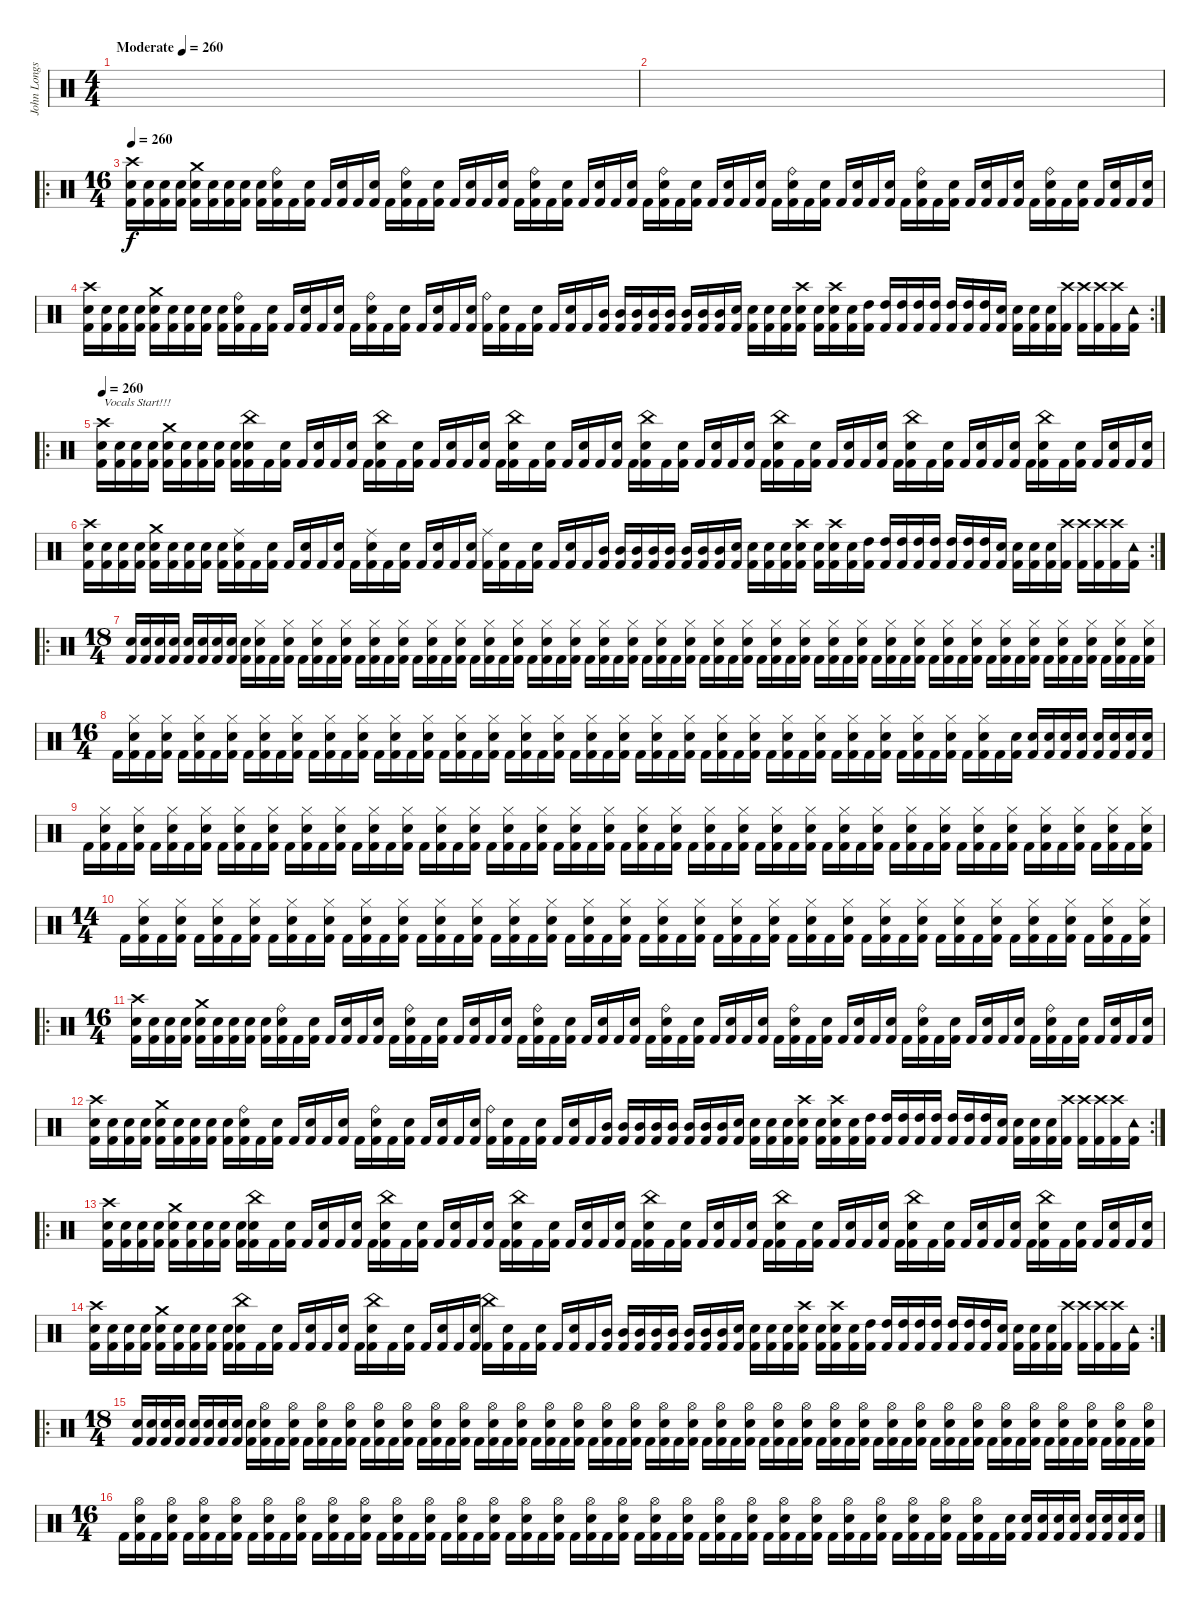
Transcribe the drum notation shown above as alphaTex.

\track ("John Longstreth" "John Longs") {instrument percussion}
\staff {score}
\articulation defaults
\ts (4 4)
\tempo (260 "Moderate")
\tempo 140
\tempo (260 "Moderate")
\clef neutral
\ks c
|
|
\ro
\ts (16 4)
\tempo 260
("Crash high (hit)" "Electric Snare (hit)" "Kick (hit) 2").16 ("Electric Snare (hit)" "Kick (hit) 2").16 ("Electric Snare (hit)" "Kick (hit) 2").16 ("Electric Snare (hit)" "Kick (hit) 2").16 ("Crash medium (hit)" "Electric Snare (hit)" "Kick (hit) 2").16 ("Electric Snare (hit)" "Kick (hit) 2").16 ("Electric Snare (hit)" "Kick (hit) 2").16 ("Electric Snare (hit)" "Kick (hit) 2").16 ("Electric Snare (hit)" "Kick (hit) 2").16 ("Ride (bell)" "Electric Snare (hit)" "Kick (hit) 2").16 "Kick (hit) 2".16 ("Electric Snare (hit)" "Kick (hit) 2").16 "Kick (hit) 2".16 ("Electric Snare (hit)" "Kick (hit) 2").16 "Kick (hit) 2".16 ("Electric Snare (hit)" "Kick (hit) 2").16 "Kick (hit) 2".16 ("Ride (bell)" "Electric Snare (hit)" "Kick (hit) 2").16 "Kick (hit) 2".16 ("Electric Snare (hit)" "Kick (hit) 2").16 "Kick (hit) 2".16 ("Electric Snare (hit)" "Kick (hit) 2").16 "Kick (hit) 2".16 ("Electric Snare (hit)" "Kick (hit) 2").16 "Kick (hit) 2".16 ("Ride (bell)" "Electric Snare (hit)" "Kick (hit) 2").16 "Kick (hit) 2".16 ("Electric Snare (hit)" "Kick (hit) 2").16 "Kick (hit) 2".16 ("Electric Snare (hit)" "Kick (hit) 2").16 "Kick (hit) 2".16 ("Electric Snare (hit)" "Kick (hit) 2").16 "Kick (hit) 2".16 ("Ride (bell)" "Electric Snare (hit)" "Kick (hit) 2").16 "Kick (hit) 2".16 ("Electric Snare (hit)" "Kick (hit) 2").16 "Kick (hit) 2".16 ("Electric Snare (hit)" "Kick (hit) 2").16 "Kick (hit) 2".16 ("Electric Snare (hit)" "Kick (hit) 2").16 "Kick (hit) 2".16 ("Ride (bell)" "Electric Snare (hit)" "Kick (hit) 2").16 "Kick (hit) 2".16 ("Electric Snare (hit)" "Kick (hit) 2").16 "Kick (hit) 2".16 ("Electric Snare (hit)" "Kick (hit) 2").16 "Kick (hit) 2".16 ("Electric Snare (hit)" "Kick (hit) 2").16 "Kick (hit) 2".16 ("Ride (bell)" "Electric Snare (hit)" "Kick (hit) 2").16 "Kick (hit) 2".16 ("Electric Snare (hit)" "Kick (hit) 2").16 "Kick (hit) 2".16 ("Electric Snare (hit)" "Kick (hit) 2").16 "Kick (hit) 2".16 ("Electric Snare (hit)" "Kick (hit) 2").16 "Kick (hit) 2".16 ("Ride (bell)" "Electric Snare (hit)" "Kick (hit) 2").16 "Kick (hit) 2".16 ("Electric Snare (hit)" "Kick (hit) 2").16 "Kick (hit) 2".16 ("Electric Snare (hit)" "Kick (hit) 2").16 "Kick (hit) 2".16 ("Electric Snare (hit)" "Kick (hit) 2").16 |
\rc 2
("Crash high (hit)" "Electric Snare (hit)" "Kick (hit) 2").16 ("Electric Snare (hit)" "Kick (hit) 2").16 ("Electric Snare (hit)" "Kick (hit) 2").16 ("Electric Snare (hit)" "Kick (hit) 2").16 ("Crash medium (hit)" "Electric Snare (hit)" "Kick (hit) 2").16 ("Electric Snare (hit)" "Kick (hit) 2").16 ("Electric Snare (hit)" "Kick (hit) 2").16 ("Electric Snare (hit)" "Kick (hit) 2").16 ("Electric Snare (hit)" "Kick (hit) 2").16 ("Ride (bell)" "Electric Snare (hit)" "Kick (hit) 2").16 "Kick (hit) 2".16 ("Electric Snare (hit)" "Kick (hit) 2").16 "Kick (hit) 2".16 ("Electric Snare (hit)" "Kick (hit) 2").16 "Kick (hit) 2".16 ("Electric Snare (hit)" "Kick (hit) 2").16 "Kick (hit) 2".16 ("Ride (bell)" "Electric Snare (hit)" "Kick (hit) 2").16 "Kick (hit) 2".16 ("Electric Snare (hit)" "Kick (hit) 2").16 "Kick (hit) 2".16 ("Electric Snare (hit)" "Kick (hit) 2").16 "Kick (hit) 2".16 ("Electric Snare (hit)" "Kick (hit) 2").16 ("Ride (bell)" "Kick (hit) 2").16 ("Electric Snare (hit)" "Kick (hit) 2").16 "Kick (hit) 2".16 ("Electric Snare (hit)" "Kick (hit) 2").16 "Kick (hit) 2".16 ("Electric Snare (hit)" "Kick (hit) 2").16 "Kick (hit) 2".16 ("Mid Tom (hit)" "Kick (hit) 2").16 ("Mid Tom (hit)" "Kick (hit) 2").16 ("Mid Tom (hit)" "Kick (hit) 2").16 ("Mid Tom (hit)" "Kick (hit) 2").16 ("Mid Tom (hit)" "Kick (hit) 2").16 ("Mid Tom (hit)" "Kick (hit) 2").16 ("Mid Tom (hit)" "Kick (hit) 2").16 ("Mid Tom (hit)" "Kick (hit) 2").16 ("Electric Snare (hit)" "Kick (hit) 2").16 ("Electric Snare (hit)" "Kick (hit) 2").16 ("Electric Snare (hit)" "Kick (hit) 2").16 ("Electric Snare (hit)" "Kick (hit) 2").16 ("Crash high (hit)" "Electric Snare (hit)" "Kick (hit) 2").16 ("Electric Snare (hit)" "Kick (hit) 2").16 ("Crash high (hit)" "Electric Snare (hit)" "Kick (hit) 2").16 ("Electric Snare (hit)" "Kick (hit) 2").16 ("High Tom (hit)" "Kick (hit) 2").16 ("High Tom (hit)" "Kick (hit) 2").16 ("High Tom (hit)" "Kick (hit) 2").16 ("High Tom (hit)" "Kick (hit) 2").16 ("High Tom (hit)" "Kick (hit) 2").16 ("High Tom (hit)" "Kick (hit) 2").16 ("High Tom (hit)" "Kick (hit) 2").16 ("High Tom (hit)" "Kick (hit) 2").16 ("Electric Snare (hit)" "Kick (hit) 2").16 ("Electric Snare (hit)" "Kick (hit) 2").16 ("Electric Snare (hit)" "Kick (hit) 2").16 ("Electric Snare (hit)" "Kick (hit) 2").16 ("Crash high (hit)" "Kick (hit) 2").16 ("Crash high (hit)" "Kick (hit) 2").16 ("Crash high (hit)" "Kick (hit) 2").16 ("Crash high (hit)" "Kick (hit) 2").16 ("Tambourine (hit)" "Kick (hit) 2").16 |
\ro
\tempo 260
("Crash high (hit)" "Electric Snare (hit)" "Kick (hit) 2").16{txt "Vocals Start!!!"} ("Electric Snare (hit)" "Kick (hit) 2").16 ("Electric Snare (hit)" "Kick (hit) 2").16 ("Electric Snare (hit)" "Kick (hit) 2").16 ("Crash medium (hit)" "Electric Snare (hit)" "Kick (hit) 2").16 ("Electric Snare (hit)" "Kick (hit) 2").16 ("Electric Snare (hit)" "Kick (hit) 2").16 ("Electric Snare (hit)" "Kick (hit) 2").16 ("Electric Snare (hit)" "Kick (hit) 2").16 ("China (hit)" "Electric Snare (hit)" "Kick (hit) 2").16 "Kick (hit) 2".16 ("Electric Snare (hit)" "Kick (hit) 2").16 "Kick (hit) 2".16 ("Electric Snare (hit)" "Kick (hit) 2").16 "Kick (hit) 2".16 ("Electric Snare (hit)" "Kick (hit) 2").16 "Kick (hit) 2".16 ("China (hit)" "Electric Snare (hit)" "Kick (hit) 2").16 "Kick (hit) 2".16 ("Electric Snare (hit)" "Kick (hit) 2").16 "Kick (hit) 2".16 ("Electric Snare (hit)" "Kick (hit) 2").16 "Kick (hit) 2".16 ("Electric Snare (hit)" "Kick (hit) 2").16 "Kick (hit) 2".16 ("China (hit)" "Electric Snare (hit)" "Kick (hit) 2").16 "Kick (hit) 2".16 ("Electric Snare (hit)" "Kick (hit) 2").16 "Kick (hit) 2".16 ("Electric Snare (hit)" "Kick (hit) 2").16 "Kick (hit) 2".16 ("Electric Snare (hit)" "Kick (hit) 2").16 "Kick (hit) 2".16 ("China (hit)" "Electric Snare (hit)" "Kick (hit) 2").16 "Kick (hit) 2".16 ("Electric Snare (hit)" "Kick (hit) 2").16 "Kick (hit) 2".16 ("Electric Snare (hit)" "Kick (hit) 2").16 "Kick (hit) 2".16 ("Electric Snare (hit)" "Kick (hit) 2").16 "Kick (hit) 2".16 ("China (hit)" "Electric Snare (hit)" "Kick (hit) 2").16 "Kick (hit) 2".16 ("Electric Snare (hit)" "Kick (hit) 2").16 "Kick (hit) 2".16 ("Electric Snare (hit)" "Kick (hit) 2").16 "Kick (hit) 2".16 ("Electric Snare (hit)" "Kick (hit) 2").16 "Kick (hit) 2".16 ("China (hit)" "Electric Snare (hit)" "Kick (hit) 2").16 "Kick (hit) 2".16 ("Electric Snare (hit)" "Kick (hit) 2").16 "Kick (hit) 2".16 ("Electric Snare (hit)" "Kick (hit) 2").16 "Kick (hit) 2".16 ("Electric Snare (hit)" "Kick (hit) 2").16 "Kick (hit) 2".16 ("China (hit)" "Electric Snare (hit)" "Kick (hit) 2").16 "Kick (hit) 2".16 ("Electric Snare (hit)" "Kick (hit) 2").16 "Kick (hit) 2".16 ("Electric Snare (hit)" "Kick (hit) 2").16 "Kick (hit) 2".16 ("Electric Snare (hit)" "Kick (hit) 2").16 |
\rc 2
("Crash high (hit)" "Electric Snare (hit)" "Kick (hit) 2").16 ("Electric Snare (hit)" "Kick (hit) 2").16 ("Electric Snare (hit)" "Kick (hit) 2").16 ("Electric Snare (hit)" "Kick (hit) 2").16 ("Crash medium (hit)" "Electric Snare (hit)" "Kick (hit) 2").16 ("Electric Snare (hit)" "Kick (hit) 2").16 ("Electric Snare (hit)" "Kick (hit) 2").16 ("Electric Snare (hit)" "Kick (hit) 2").16 ("Electric Snare (hit)" "Kick (hit) 2").16 ("Ride (middle)" "Electric Snare (hit)" "Kick (hit) 2").16 "Kick (hit) 2".16 ("Electric Snare (hit)" "Kick (hit) 2").16 "Kick (hit) 2".16 ("Electric Snare (hit)" "Kick (hit) 2").16 "Kick (hit) 2".16 ("Electric Snare (hit)" "Kick (hit) 2").16 "Kick (hit) 2".16 ("Ride (middle)" "Electric Snare (hit)" "Kick (hit) 2").16 "Kick (hit) 2".16 ("Electric Snare (hit)" "Kick (hit) 2").16 "Kick (hit) 2".16 ("Electric Snare (hit)" "Kick (hit) 2").16 "Kick (hit) 2".16 ("Electric Snare (hit)" "Kick (hit) 2").16 ("Ride (middle)" "Kick (hit) 2").16 ("Electric Snare (hit)" "Kick (hit) 2").16 "Kick (hit) 2".16 ("Electric Snare (hit)" "Kick (hit) 2").16 "Kick (hit) 2".16 ("Electric Snare (hit)" "Kick (hit) 2").16 "Kick (hit) 2".16 ("Mid Tom (hit)" "Kick (hit) 2").16 ("Mid Tom (hit)" "Kick (hit) 2").16 ("Mid Tom (hit)" "Kick (hit) 2").16 ("Mid Tom (hit)" "Kick (hit) 2").16 ("Mid Tom (hit)" "Kick (hit) 2").16 ("Mid Tom (hit)" "Kick (hit) 2").16 ("Mid Tom (hit)" "Kick (hit) 2").16 ("Mid Tom (hit)" "Kick (hit) 2").16 ("Electric Snare (hit)" "Kick (hit) 2").16 ("Electric Snare (hit)" "Kick (hit) 2").16 ("Electric Snare (hit)" "Kick (hit) 2").16 ("Electric Snare (hit)" "Kick (hit) 2").16 ("Crash high (hit)" "Electric Snare (hit)" "Kick (hit) 2").16 ("Electric Snare (hit)" "Kick (hit) 2").16 ("Crash high (hit)" "Electric Snare (hit)" "Kick (hit) 2").16 ("Electric Snare (hit)" "Kick (hit) 2").16 ("High Tom (hit)" "Kick (hit) 2").16 ("High Tom (hit)" "Kick (hit) 2").16 ("High Tom (hit)" "Kick (hit) 2").16 ("High Tom (hit)" "Kick (hit) 2").16 ("High Tom (hit)" "Kick (hit) 2").16 ("High Tom (hit)" "Kick (hit) 2").16 ("High Tom (hit)" "Kick (hit) 2").16 ("High Tom (hit)" "Kick (hit) 2").16 ("Electric Snare (hit)" "Kick (hit) 2").16 ("Electric Snare (hit)" "Kick (hit) 2").16 ("Electric Snare (hit)" "Kick (hit) 2").16 ("Electric Snare (hit)" "Kick (hit) 2").16 ("Crash high (hit)" "Kick (hit) 2").16 ("Crash high (hit)" "Kick (hit) 2").16 ("Crash high (hit)" "Kick (hit) 2").16 ("Crash high (hit)" "Kick (hit) 2").16 ("Tambourine (hit)" "Kick (hit) 2").16 |
\ro
\ts (18 4)
("Electric Snare (hit)" "Kick (hit) 2").16 ("Electric Snare (hit)" "Kick (hit) 2").16 ("Electric Snare (hit)" "Kick (hit) 2").16 ("Electric Snare (hit)" "Kick (hit) 2").16 ("Electric Snare (hit)" "Kick (hit) 2").16 ("Electric Snare (hit)" "Kick (hit) 2").16 ("Electric Snare (hit)" "Kick (hit) 2").16 ("Electric Snare (hit)" "Kick (hit) 2").16 ("Electric Snare (hit)" "Kick (hit) 2").16 ("Hi-Hat (closed)" "Electric Snare (hit)" "Kick (hit) 2").16 "Kick (hit) 2".16 ("Hi-Hat (closed)" "Electric Snare (hit)" "Kick (hit) 2").16 "Kick (hit) 2".16 ("Hi-Hat (closed)" "Electric Snare (hit)" "Kick (hit) 2").16 "Kick (hit) 2".16 ("Hi-Hat (closed)" "Electric Snare (hit)" "Kick (hit) 2").16 "Kick (hit) 2".16 ("Hi-Hat (closed)" "Electric Snare (hit)" "Kick (hit) 2").16 "Kick (hit) 2".16 ("Hi-Hat (closed)" "Electric Snare (hit)" "Kick (hit) 2").16 "Kick (hit) 2".16 ("Hi-Hat (closed)" "Electric Snare (hit)" "Kick (hit) 2").16 "Kick (hit) 2".16 ("Hi-Hat (closed)" "Electric Snare (hit)" "Kick (hit) 2").16 "Kick (hit) 2".16 ("Hi-Hat (closed)" "Electric Snare (hit)" "Kick (hit) 2").16 "Kick (hit) 2".16 ("Hi-Hat (closed)" "Electric Snare (hit)" "Kick (hit) 2").16 "Kick (hit) 2".16 ("Hi-Hat (closed)" "Electric Snare (hit)" "Kick (hit) 2").16 "Kick (hit) 2".16 ("Hi-Hat (closed)" "Electric Snare (hit)" "Kick (hit) 2").16 "Kick (hit) 2".16 ("Hi-Hat (closed)" "Electric Snare (hit)" "Kick (hit) 2").16 "Kick (hit) 2".16 ("Hi-Hat (closed)" "Electric Snare (hit)" "Kick (hit) 2").16 "Kick (hit) 2".16 ("Hi-Hat (closed)" "Electric Snare (hit)" "Kick (hit) 2").16 "Kick (hit) 2".16 ("Hi-Hat (closed)" "Electric Snare (hit)" "Kick (hit) 2").16 "Kick (hit) 2".16 ("Hi-Hat (closed)" "Electric Snare (hit)" "Kick (hit) 2").16 "Kick (hit) 2".16 ("Hi-Hat (closed)" "Electric Snare (hit)" "Kick (hit) 2").16 "Kick (hit) 2".16 ("Hi-Hat (closed)" "Electric Snare (hit)" "Kick (hit) 2").16 "Kick (hit) 2".16 ("Hi-Hat (closed)" "Electric Snare (hit)" "Kick (hit) 2").16 "Kick (hit) 2".16 ("Hi-Hat (closed)" "Electric Snare (hit)" "Kick (hit) 2").16 "Kick (hit) 2".16 ("Hi-Hat (closed)" "Electric Snare (hit)" "Kick (hit) 2").16 "Kick (hit) 2".16 ("Hi-Hat (closed)" "Electric Snare (hit)" "Kick (hit) 2").16 "Kick (hit) 2".16 ("Hi-Hat (closed)" "Electric Snare (hit)" "Kick (hit) 2").16 "Kick (hit) 2".16 ("Hi-Hat (closed)" "Electric Snare (hit)" "Kick (hit) 2").16 "Kick (hit) 2".16 ("Hi-Hat (closed)" "Electric Snare (hit)" "Kick (hit) 2").16 "Kick (hit) 2".16 ("Hi-Hat (closed)" "Electric Snare (hit)" "Kick (hit) 2").16 "Kick (hit) 2".16 ("Hi-Hat (closed)" "Electric Snare (hit)" "Kick (hit) 2").16 "Kick (hit) 2".16 ("Hi-Hat (closed)" "Electric Snare (hit)" "Kick (hit) 2").16 "Kick (hit) 2".16 ("Hi-Hat (closed)" "Electric Snare (hit)" "Kick (hit) 2").16 "Kick (hit) 2".16 ("Hi-Hat (closed)" "Electric Snare (hit)" "Kick (hit) 2").16 "Kick (hit) 2".16 ("Hi-Hat (closed)" "Electric Snare (hit)" "Kick (hit) 2").16 |
\ts (16 4)
"Kick (hit) 2".16 ("Hi-Hat (closed)" "Electric Snare (hit)" "Kick (hit) 2").16 "Kick (hit) 2".16 ("Hi-Hat (closed)" "Electric Snare (hit)" "Kick (hit) 2").16 "Kick (hit) 2".16 ("Hi-Hat (closed)" "Electric Snare (hit)" "Kick (hit) 2").16 "Kick (hit) 2".16 ("Hi-Hat (closed)" "Electric Snare (hit)" "Kick (hit) 2").16 "Kick (hit) 2".16 ("Hi-Hat (closed)" "Electric Snare (hit)" "Kick (hit) 2").16 "Kick (hit) 2".16 ("Hi-Hat (closed)" "Electric Snare (hit)" "Kick (hit) 2").16 "Kick (hit) 2".16 ("Hi-Hat (closed)" "Electric Snare (hit)" "Kick (hit) 2").16 "Kick (hit) 2".16 ("Hi-Hat (closed)" "Electric Snare (hit)" "Kick (hit) 2").16 "Kick (hit) 2".16 ("Hi-Hat (closed)" "Electric Snare (hit)" "Kick (hit) 2").16 "Kick (hit) 2".16 ("Hi-Hat (closed)" "Electric Snare (hit)" "Kick (hit) 2").16 "Kick (hit) 2".16 ("Hi-Hat (closed)" "Electric Snare (hit)" "Kick (hit) 2").16 "Kick (hit) 2".16 ("Hi-Hat (closed)" "Electric Snare (hit)" "Kick (hit) 2").16 "Kick (hit) 2".16 ("Hi-Hat (closed)" "Electric Snare (hit)" "Kick (hit) 2").16 "Kick (hit) 2".16 ("Hi-Hat (closed)" "Electric Snare (hit)" "Kick (hit) 2").16 "Kick (hit) 2".16 ("Hi-Hat (closed)" "Electric Snare (hit)" "Kick (hit) 2").16 "Kick (hit) 2".16 ("Hi-Hat (closed)" "Electric Snare (hit)" "Kick (hit) 2").16 "Kick (hit) 2".16 ("Hi-Hat (closed)" "Electric Snare (hit)" "Kick (hit) 2").16 "Kick (hit) 2".16 ("Hi-Hat (closed)" "Electric Snare (hit)" "Kick (hit) 2").16 "Kick (hit) 2".16 ("Hi-Hat (closed)" "Electric Snare (hit)" "Kick (hit) 2").16 "Kick (hit) 2".16 ("Hi-Hat (closed)" "Electric Snare (hit)" "Kick (hit) 2").16 "Kick (hit) 2".16 ("Hi-Hat (closed)" "Electric Snare (hit)" "Kick (hit) 2").16 "Kick (hit) 2".16 ("Hi-Hat (closed)" "Electric Snare (hit)" "Kick (hit) 2").16 "Kick (hit) 2".16 ("Hi-Hat (closed)" "Electric Snare (hit)" "Kick (hit) 2").16 "Kick (hit) 2".16 ("Hi-Hat (closed)" "Electric Snare (hit)" "Kick (hit) 2").16 "Kick (hit) 2".16 ("Hi-Hat (closed)" "Electric Snare (hit)" "Kick (hit) 2").16 "Kick (hit) 2".16 ("Hi-Hat (closed)" "Electric Snare (hit)" "Kick (hit) 2").16 "Kick (hit) 2".16 ("Hi-Hat (closed)" "Electric Snare (hit)" "Kick (hit) 2").16 "Kick (hit) 2".16 ("Electric Snare (hit)" "Kick (hit) 2").16 ("Electric Snare (hit)" "Kick (hit) 2").16 ("Electric Snare (hit)" "Kick (hit) 2").16 ("Electric Snare (hit)" "Kick (hit) 2").16 ("Electric Snare (hit)" "Kick (hit) 2").16 ("Electric Snare (hit)" "Kick (hit) 2").16 ("Electric Snare (hit)" "Kick (hit) 2").16 ("Electric Snare (hit)" "Kick (hit) 2").16 ("Electric Snare (hit)" "Kick (hit) 2").16 |
"Kick (hit) 2".16 ("Hi-Hat (closed)" "Electric Snare (hit)" "Kick (hit) 2").16 "Kick (hit) 2".16 ("Hi-Hat (closed)" "Electric Snare (hit)" "Kick (hit) 2").16 "Kick (hit) 2".16 ("Hi-Hat (closed)" "Electric Snare (hit)" "Kick (hit) 2").16 "Kick (hit) 2".16 ("Hi-Hat (closed)" "Electric Snare (hit)" "Kick (hit) 2").16 "Kick (hit) 2".16 ("Hi-Hat (closed)" "Electric Snare (hit)" "Kick (hit) 2").16 "Kick (hit) 2".16 ("Hi-Hat (closed)" "Electric Snare (hit)" "Kick (hit) 2").16 "Kick (hit) 2".16 ("Hi-Hat (closed)" "Electric Snare (hit)" "Kick (hit) 2").16 "Kick (hit) 2".16 ("Hi-Hat (closed)" "Electric Snare (hit)" "Kick (hit) 2").16 "Kick (hit) 2".16 ("Hi-Hat (closed)" "Electric Snare (hit)" "Kick (hit) 2").16 "Kick (hit) 2".16 ("Hi-Hat (closed)" "Electric Snare (hit)" "Kick (hit) 2").16 "Kick (hit) 2".16 ("Hi-Hat (closed)" "Electric Snare (hit)" "Kick (hit) 2").16 "Kick (hit) 2".16 ("Hi-Hat (closed)" "Electric Snare (hit)" "Kick (hit) 2").16 "Kick (hit) 2".16 ("Hi-Hat (closed)" "Electric Snare (hit)" "Kick (hit) 2").16 "Kick (hit) 2".16 ("Hi-Hat (closed)" "Electric Snare (hit)" "Kick (hit) 2").16 "Kick (hit) 2".16 ("Hi-Hat (closed)" "Electric Snare (hit)" "Kick (hit) 2").16 "Kick (hit) 2".16 ("Hi-Hat (closed)" "Electric Snare (hit)" "Kick (hit) 2").16 "Kick (hit) 2".16 ("Hi-Hat (closed)" "Electric Snare (hit)" "Kick (hit) 2").16 "Kick (hit) 2".16 ("Hi-Hat (closed)" "Electric Snare (hit)" "Kick (hit) 2").16 "Kick (hit) 2".16 ("Hi-Hat (closed)" "Electric Snare (hit)" "Kick (hit) 2").16 "Kick (hit) 2".16 ("Hi-Hat (closed)" "Electric Snare (hit)" "Kick (hit) 2").16 "Kick (hit) 2".16 ("Hi-Hat (closed)" "Electric Snare (hit)" "Kick (hit) 2").16 "Kick (hit) 2".16 ("Hi-Hat (closed)" "Electric Snare (hit)" "Kick (hit) 2").16 "Kick (hit) 2".16 ("Hi-Hat (closed)" "Electric Snare (hit)" "Kick (hit) 2").16 "Kick (hit) 2".16 ("Hi-Hat (closed)" "Electric Snare (hit)" "Kick (hit) 2").16 "Kick (hit) 2".16 ("Hi-Hat (closed)" "Electric Snare (hit)" "Kick (hit) 2").16 "Kick (hit) 2".16 ("Hi-Hat (closed)" "Electric Snare (hit)" "Kick (hit) 2").16 "Kick (hit) 2".16 ("Hi-Hat (closed)" "Electric Snare (hit)" "Kick (hit) 2").16 "Kick (hit) 2".16 ("Hi-Hat (closed)" "Electric Snare (hit)" "Kick (hit) 2").16 "Kick (hit) 2".16 ("Hi-Hat (closed)" "Electric Snare (hit)" "Kick (hit) 2").16 "Kick (hit) 2".16 ("Hi-Hat (closed)" "Electric Snare (hit)" "Kick (hit) 2").16 "Kick (hit) 2".16 ("Hi-Hat (closed)" "Electric Snare (hit)" "Kick (hit) 2").16 "Kick (hit) 2".16 ("Hi-Hat (closed)" "Electric Snare (hit)" "Kick (hit) 2").16 |
\ts (14 4)
"Kick (hit) 2".16 ("Hi-Hat (closed)" "Electric Snare (hit)" "Kick (hit) 2").16 "Kick (hit) 2".16 ("Hi-Hat (closed)" "Electric Snare (hit)" "Kick (hit) 2").16 "Kick (hit) 2".16 ("Hi-Hat (closed)" "Electric Snare (hit)" "Kick (hit) 2").16 "Kick (hit) 2".16 ("Hi-Hat (closed)" "Electric Snare (hit)" "Kick (hit) 2").16 "Kick (hit) 2".16 ("Hi-Hat (closed)" "Electric Snare (hit)" "Kick (hit) 2").16 "Kick (hit) 2".16 ("Hi-Hat (closed)" "Electric Snare (hit)" "Kick (hit) 2").16 "Kick (hit) 2".16 ("Hi-Hat (closed)" "Electric Snare (hit)" "Kick (hit) 2").16 "Kick (hit) 2".16 ("Hi-Hat (closed)" "Electric Snare (hit)" "Kick (hit) 2").16 "Kick (hit) 2".16 ("Hi-Hat (closed)" "Electric Snare (hit)" "Kick (hit) 2").16 "Kick (hit) 2".16 ("Hi-Hat (closed)" "Electric Snare (hit)" "Kick (hit) 2").16 "Kick (hit) 2".16 ("Hi-Hat (closed)" "Electric Snare (hit)" "Kick (hit) 2").16 "Kick (hit) 2".16 ("Hi-Hat (closed)" "Electric Snare (hit)" "Kick (hit) 2").16 "Kick (hit) 2".16 ("Hi-Hat (closed)" "Electric Snare (hit)" "Kick (hit) 2").16 "Kick (hit) 2".16 ("Hi-Hat (closed)" "Electric Snare (hit)" "Kick (hit) 2").16 "Kick (hit) 2".16 ("Hi-Hat (closed)" "Electric Snare (hit)" "Kick (hit) 2").16 "Kick (hit) 2".16 ("Hi-Hat (closed)" "Electric Snare (hit)" "Kick (hit) 2").16 "Kick (hit) 2".16 ("Hi-Hat (closed)" "Electric Snare (hit)" "Kick (hit) 2").16 "Kick (hit) 2".16 ("Hi-Hat (closed)" "Electric Snare (hit)" "Kick (hit) 2").16 "Kick (hit) 2".16 ("Hi-Hat (closed)" "Electric Snare (hit)" "Kick (hit) 2").16 "Kick (hit) 2".16 ("Hi-Hat (closed)" "Electric Snare (hit)" "Kick (hit) 2").16 "Kick (hit) 2".16 ("Hi-Hat (closed)" "Electric Snare (hit)" "Kick (hit) 2").16 "Kick (hit) 2".16 ("Hi-Hat (closed)" "Electric Snare (hit)" "Kick (hit) 2").16 "Kick (hit) 2".16 ("Hi-Hat (closed)" "Electric Snare (hit)" "Kick (hit) 2").16 "Kick (hit) 2".16 ("Hi-Hat (closed)" "Electric Snare (hit)" "Kick (hit) 2").16 "Kick (hit) 2".16 ("Hi-Hat (closed)" "Electric Snare (hit)" "Kick (hit) 2").16 "Kick (hit) 2".16 ("Hi-Hat (closed)" "Electric Snare (hit)" "Kick (hit) 2").16 "Kick (hit) 2".16 ("Hi-Hat (closed)" "Electric Snare (hit)" "Kick (hit) 2").16 "Kick (hit) 2".16 ("Hi-Hat (closed)" "Electric Snare (hit)" "Kick (hit) 2").16 |
\ro
\ts (16 4)
("Crash high (hit)" "Electric Snare (hit)" "Kick (hit) 2").16 ("Electric Snare (hit)" "Kick (hit) 2").16 ("Electric Snare (hit)" "Kick (hit) 2").16 ("Electric Snare (hit)" "Kick (hit) 2").16 ("Crash medium (hit)" "Electric Snare (hit)" "Kick (hit) 2").16 ("Electric Snare (hit)" "Kick (hit) 2").16 ("Electric Snare (hit)" "Kick (hit) 2").16 ("Electric Snare (hit)" "Kick (hit) 2").16 ("Electric Snare (hit)" "Kick (hit) 2").16 ("Ride (bell)" "Electric Snare (hit)" "Kick (hit) 2").16 "Kick (hit) 2".16 ("Electric Snare (hit)" "Kick (hit) 2").16 "Kick (hit) 2".16 ("Electric Snare (hit)" "Kick (hit) 2").16 "Kick (hit) 2".16 ("Electric Snare (hit)" "Kick (hit) 2").16 "Kick (hit) 2".16 ("Ride (bell)" "Electric Snare (hit)" "Kick (hit) 2").16 "Kick (hit) 2".16 ("Electric Snare (hit)" "Kick (hit) 2").16 "Kick (hit) 2".16 ("Electric Snare (hit)" "Kick (hit) 2").16 "Kick (hit) 2".16 ("Electric Snare (hit)" "Kick (hit) 2").16 "Kick (hit) 2".16 ("Ride (bell)" "Electric Snare (hit)" "Kick (hit) 2").16 "Kick (hit) 2".16 ("Electric Snare (hit)" "Kick (hit) 2").16 "Kick (hit) 2".16 ("Electric Snare (hit)" "Kick (hit) 2").16 "Kick (hit) 2".16 ("Electric Snare (hit)" "Kick (hit) 2").16 "Kick (hit) 2".16 ("Ride (bell)" "Electric Snare (hit)" "Kick (hit) 2").16 "Kick (hit) 2".16 ("Electric Snare (hit)" "Kick (hit) 2").16 "Kick (hit) 2".16 ("Electric Snare (hit)" "Kick (hit) 2").16 "Kick (hit) 2".16 ("Electric Snare (hit)" "Kick (hit) 2").16 "Kick (hit) 2".16 ("Ride (bell)" "Electric Snare (hit)" "Kick (hit) 2").16 "Kick (hit) 2".16 ("Electric Snare (hit)" "Kick (hit) 2").16 "Kick (hit) 2".16 ("Electric Snare (hit)" "Kick (hit) 2").16 "Kick (hit) 2".16 ("Electric Snare (hit)" "Kick (hit) 2").16 "Kick (hit) 2".16 ("Ride (bell)" "Electric Snare (hit)" "Kick (hit) 2").16 "Kick (hit) 2".16 ("Electric Snare (hit)" "Kick (hit) 2").16 "Kick (hit) 2".16 ("Electric Snare (hit)" "Kick (hit) 2").16 "Kick (hit) 2".16 ("Electric Snare (hit)" "Kick (hit) 2").16 "Kick (hit) 2".16 ("Ride (bell)" "Electric Snare (hit)" "Kick (hit) 2").16 "Kick (hit) 2".16 ("Electric Snare (hit)" "Kick (hit) 2").16 "Kick (hit) 2".16 ("Electric Snare (hit)" "Kick (hit) 2").16 "Kick (hit) 2".16 ("Electric Snare (hit)" "Kick (hit) 2").16 |
\rc 2
("Crash high (hit)" "Electric Snare (hit)" "Kick (hit) 2").16 ("Electric Snare (hit)" "Kick (hit) 2").16 ("Electric Snare (hit)" "Kick (hit) 2").16 ("Electric Snare (hit)" "Kick (hit) 2").16 ("Crash medium (hit)" "Electric Snare (hit)" "Kick (hit) 2").16 ("Electric Snare (hit)" "Kick (hit) 2").16 ("Electric Snare (hit)" "Kick (hit) 2").16 ("Electric Snare (hit)" "Kick (hit) 2").16 ("Electric Snare (hit)" "Kick (hit) 2").16 ("Ride (bell)" "Electric Snare (hit)" "Kick (hit) 2").16 "Kick (hit) 2".16 ("Electric Snare (hit)" "Kick (hit) 2").16 "Kick (hit) 2".16 ("Electric Snare (hit)" "Kick (hit) 2").16 "Kick (hit) 2".16 ("Electric Snare (hit)" "Kick (hit) 2").16 "Kick (hit) 2".16 ("Ride (bell)" "Electric Snare (hit)" "Kick (hit) 2").16 "Kick (hit) 2".16 ("Electric Snare (hit)" "Kick (hit) 2").16 "Kick (hit) 2".16 ("Electric Snare (hit)" "Kick (hit) 2").16 "Kick (hit) 2".16 ("Electric Snare (hit)" "Kick (hit) 2").16 ("Ride (bell)" "Kick (hit) 2").16 ("Electric Snare (hit)" "Kick (hit) 2").16 "Kick (hit) 2".16 ("Electric Snare (hit)" "Kick (hit) 2").16 "Kick (hit) 2".16 ("Electric Snare (hit)" "Kick (hit) 2").16 "Kick (hit) 2".16 ("Mid Tom (hit)" "Kick (hit) 2").16 ("Mid Tom (hit)" "Kick (hit) 2").16 ("Mid Tom (hit)" "Kick (hit) 2").16 ("Mid Tom (hit)" "Kick (hit) 2").16 ("Mid Tom (hit)" "Kick (hit) 2").16 ("Mid Tom (hit)" "Kick (hit) 2").16 ("Mid Tom (hit)" "Kick (hit) 2").16 ("Mid Tom (hit)" "Kick (hit) 2").16 ("Electric Snare (hit)" "Kick (hit) 2").16 ("Electric Snare (hit)" "Kick (hit) 2").16 ("Electric Snare (hit)" "Kick (hit) 2").16 ("Electric Snare (hit)" "Kick (hit) 2").16 ("Crash high (hit)" "Electric Snare (hit)" "Kick (hit) 2").16 ("Electric Snare (hit)" "Kick (hit) 2").16 ("Crash high (hit)" "Electric Snare (hit)" "Kick (hit) 2").16 ("Electric Snare (hit)" "Kick (hit) 2").16 ("High Tom (hit)" "Kick (hit) 2").16 ("High Tom (hit)" "Kick (hit) 2").16 ("High Tom (hit)" "Kick (hit) 2").16 ("High Tom (hit)" "Kick (hit) 2").16 ("High Tom (hit)" "Kick (hit) 2").16 ("High Tom (hit)" "Kick (hit) 2").16 ("High Tom (hit)" "Kick (hit) 2").16 ("High Tom (hit)" "Kick (hit) 2").16 ("Electric Snare (hit)" "Kick (hit) 2").16 ("Electric Snare (hit)" "Kick (hit) 2").16 ("Electric Snare (hit)" "Kick (hit) 2").16 ("Electric Snare (hit)" "Kick (hit) 2").16 ("Crash high (hit)" "Kick (hit) 2").16 ("Crash high (hit)" "Kick (hit) 2").16 ("Crash high (hit)" "Kick (hit) 2").16 ("Crash high (hit)" "Kick (hit) 2").16 ("Tambourine (hit)" "Kick (hit) 2").16 |
\ro
("Crash high (hit)" "Electric Snare (hit)" "Kick (hit) 2").16 ("Electric Snare (hit)" "Kick (hit) 2").16 ("Electric Snare (hit)" "Kick (hit) 2").16 ("Electric Snare (hit)" "Kick (hit) 2").16 ("Crash medium (hit)" "Electric Snare (hit)" "Kick (hit) 2").16 ("Electric Snare (hit)" "Kick (hit) 2").16 ("Electric Snare (hit)" "Kick (hit) 2").16 ("Electric Snare (hit)" "Kick (hit) 2").16 ("Electric Snare (hit)" "Kick (hit) 2").16 ("China (hit)" "Electric Snare (hit)" "Kick (hit) 2").16 "Kick (hit) 2".16 ("Electric Snare (hit)" "Kick (hit) 2").16 "Kick (hit) 2".16 ("Electric Snare (hit)" "Kick (hit) 2").16 "Kick (hit) 2".16 ("Electric Snare (hit)" "Kick (hit) 2").16 "Kick (hit) 2".16 ("China (hit)" "Electric Snare (hit)" "Kick (hit) 2").16 "Kick (hit) 2".16 ("Electric Snare (hit)" "Kick (hit) 2").16 "Kick (hit) 2".16 ("Electric Snare (hit)" "Kick (hit) 2").16 "Kick (hit) 2".16 ("Electric Snare (hit)" "Kick (hit) 2").16 "Kick (hit) 2".16 ("China (hit)" "Electric Snare (hit)" "Kick (hit) 2").16 "Kick (hit) 2".16 ("Electric Snare (hit)" "Kick (hit) 2").16 "Kick (hit) 2".16 ("Electric Snare (hit)" "Kick (hit) 2").16 "Kick (hit) 2".16 ("Electric Snare (hit)" "Kick (hit) 2").16 "Kick (hit) 2".16 ("China (hit)" "Electric Snare (hit)" "Kick (hit) 2").16 "Kick (hit) 2".16 ("Electric Snare (hit)" "Kick (hit) 2").16 "Kick (hit) 2".16 ("Electric Snare (hit)" "Kick (hit) 2").16 "Kick (hit) 2".16 ("Electric Snare (hit)" "Kick (hit) 2").16 "Kick (hit) 2".16 ("China (hit)" "Electric Snare (hit)" "Kick (hit) 2").16 "Kick (hit) 2".16 ("Electric Snare (hit)" "Kick (hit) 2").16 "Kick (hit) 2".16 ("Electric Snare (hit)" "Kick (hit) 2").16 "Kick (hit) 2".16 ("Electric Snare (hit)" "Kick (hit) 2").16 "Kick (hit) 2".16 ("China (hit)" "Electric Snare (hit)" "Kick (hit) 2").16 "Kick (hit) 2".16 ("Electric Snare (hit)" "Kick (hit) 2").16 "Kick (hit) 2".16 ("Electric Snare (hit)" "Kick (hit) 2").16 "Kick (hit) 2".16 ("Electric Snare (hit)" "Kick (hit) 2").16 "Kick (hit) 2".16 ("China (hit)" "Electric Snare (hit)" "Kick (hit) 2").16 "Kick (hit) 2".16 ("Electric Snare (hit)" "Kick (hit) 2").16 "Kick (hit) 2".16 ("Electric Snare (hit)" "Kick (hit) 2").16 "Kick (hit) 2".16 ("Electric Snare (hit)" "Kick (hit) 2").16 |
\rc 2
("Crash high (hit)" "Electric Snare (hit)" "Kick (hit) 2").16 ("Electric Snare (hit)" "Kick (hit) 2").16 ("Electric Snare (hit)" "Kick (hit) 2").16 ("Electric Snare (hit)" "Kick (hit) 2").16 ("Crash medium (hit)" "Electric Snare (hit)" "Kick (hit) 2").16 ("Electric Snare (hit)" "Kick (hit) 2").16 ("Electric Snare (hit)" "Kick (hit) 2").16 ("Electric Snare (hit)" "Kick (hit) 2").16 ("Electric Snare (hit)" "Kick (hit) 2").16 ("China (hit)" "Electric Snare (hit)" "Kick (hit) 2").16 "Kick (hit) 2".16 ("Electric Snare (hit)" "Kick (hit) 2").16 "Kick (hit) 2".16 ("Electric Snare (hit)" "Kick (hit) 2").16 "Kick (hit) 2".16 ("Electric Snare (hit)" "Kick (hit) 2").16 "Kick (hit) 2".16 ("China (hit)" "Electric Snare (hit)" "Kick (hit) 2").16 "Kick (hit) 2".16 ("Electric Snare (hit)" "Kick (hit) 2").16 "Kick (hit) 2".16 ("Electric Snare (hit)" "Kick (hit) 2").16 "Kick (hit) 2".16 ("Electric Snare (hit)" "Kick (hit) 2").16 ("China (hit)" "Kick (hit) 2").16 ("Electric Snare (hit)" "Kick (hit) 2").16 "Kick (hit) 2".16 ("Electric Snare (hit)" "Kick (hit) 2").16 "Kick (hit) 2".16 ("Electric Snare (hit)" "Kick (hit) 2").16 "Kick (hit) 2".16 ("Mid Tom (hit)" "Kick (hit) 2").16 ("Mid Tom (hit)" "Kick (hit) 2").16 ("Mid Tom (hit)" "Kick (hit) 2").16 ("Mid Tom (hit)" "Kick (hit) 2").16 ("Mid Tom (hit)" "Kick (hit) 2").16 ("Mid Tom (hit)" "Kick (hit) 2").16 ("Mid Tom (hit)" "Kick (hit) 2").16 ("Mid Tom (hit)" "Kick (hit) 2").16 ("Electric Snare (hit)" "Kick (hit) 2").16 ("Electric Snare (hit)" "Kick (hit) 2").16 ("Electric Snare (hit)" "Kick (hit) 2").16 ("Electric Snare (hit)" "Kick (hit) 2").16 ("Crash high (hit)" "Electric Snare (hit)" "Kick (hit) 2").16 ("Electric Snare (hit)" "Kick (hit) 2").16 ("Crash high (hit)" "Electric Snare (hit)" "Kick (hit) 2").16 ("Electric Snare (hit)" "Kick (hit) 2").16 ("High Tom (hit)" "Kick (hit) 2").16 ("High Tom (hit)" "Kick (hit) 2").16 ("High Tom (hit)" "Kick (hit) 2").16 ("High Tom (hit)" "Kick (hit) 2").16 ("High Tom (hit)" "Kick (hit) 2").16 ("High Tom (hit)" "Kick (hit) 2").16 ("High Tom (hit)" "Kick (hit) 2").16 ("High Tom (hit)" "Kick (hit) 2").16 ("Electric Snare (hit)" "Kick (hit) 2").16 ("Electric Snare (hit)" "Kick (hit) 2").16 ("Electric Snare (hit)" "Kick (hit) 2").16 ("Electric Snare (hit)" "Kick (hit) 2").16 ("Crash high (hit)" "Kick (hit) 2").16 ("Crash high (hit)" "Kick (hit) 2").16 ("Crash high (hit)" "Kick (hit) 2").16 ("Crash high (hit)" "Kick (hit) 2").16 ("Tambourine (hit)" "Kick (hit) 2").16 |
\ro
\ts (18 4)
("Electric Snare (hit)" "Kick (hit) 2").16 ("Electric Snare (hit)" "Kick (hit) 2").16 ("Electric Snare (hit)" "Kick (hit) 2").16 ("Electric Snare (hit)" "Kick (hit) 2").16 ("Electric Snare (hit)" "Kick (hit) 2").16 ("Electric Snare (hit)" "Kick (hit) 2").16 ("Electric Snare (hit)" "Kick (hit) 2").16 ("Electric Snare (hit)" "Kick (hit) 2").16 ("Electric Snare (hit)" "Kick (hit) 2").16 ("Hi-Hat (open)" "Electric Snare (hit)" "Kick (hit) 2").16 "Kick (hit) 2".16 ("Hi-Hat (open)" "Electric Snare (hit)" "Kick (hit) 2").16 "Kick (hit) 2".16 ("Hi-Hat (open)" "Electric Snare (hit)" "Kick (hit) 2").16 "Kick (hit) 2".16 ("Hi-Hat (open)" "Electric Snare (hit)" "Kick (hit) 2").16 "Kick (hit) 2".16 ("Hi-Hat (open)" "Electric Snare (hit)" "Kick (hit) 2").16 "Kick (hit) 2".16 ("Hi-Hat (open)" "Electric Snare (hit)" "Kick (hit) 2").16 "Kick (hit) 2".16 ("Hi-Hat (open)" "Electric Snare (hit)" "Kick (hit) 2").16 "Kick (hit) 2".16 ("Hi-Hat (open)" "Electric Snare (hit)" "Kick (hit) 2").16 "Kick (hit) 2".16 ("Hi-Hat (open)" "Electric Snare (hit)" "Kick (hit) 2").16 "Kick (hit) 2".16 ("Hi-Hat (open)" "Electric Snare (hit)" "Kick (hit) 2").16 "Kick (hit) 2".16 ("Hi-Hat (open)" "Electric Snare (hit)" "Kick (hit) 2").16 "Kick (hit) 2".16 ("Hi-Hat (open)" "Electric Snare (hit)" "Kick (hit) 2").16 "Kick (hit) 2".16 ("Hi-Hat (open)" "Electric Snare (hit)" "Kick (hit) 2").16 "Kick (hit) 2".16 ("Hi-Hat (open)" "Electric Snare (hit)" "Kick (hit) 2").16 "Kick (hit) 2".16 ("Hi-Hat (open)" "Electric Snare (hit)" "Kick (hit) 2").16 "Kick (hit) 2".16 ("Hi-Hat (open)" "Electric Snare (hit)" "Kick (hit) 2").16 "Kick (hit) 2".16 ("Hi-Hat (open)" "Electric Snare (hit)" "Kick (hit) 2").16 "Kick (hit) 2".16 ("Hi-Hat (open)" "Electric Snare (hit)" "Kick (hit) 2").16 "Kick (hit) 2".16 ("Hi-Hat (open)" "Electric Snare (hit)" "Kick (hit) 2").16 "Kick (hit) 2".16 ("Hi-Hat (open)" "Electric Snare (hit)" "Kick (hit) 2").16 "Kick (hit) 2".16 ("Hi-Hat (open)" "Electric Snare (hit)" "Kick (hit) 2").16 "Kick (hit) 2".16 ("Hi-Hat (open)" "Electric Snare (hit)" "Kick (hit) 2").16 "Kick (hit) 2".16 ("Hi-Hat (open)" "Electric Snare (hit)" "Kick (hit) 2").16 "Kick (hit) 2".16 ("Hi-Hat (open)" "Electric Snare (hit)" "Kick (hit) 2").16 "Kick (hit) 2".16 ("Hi-Hat (open)" "Electric Snare (hit)" "Kick (hit) 2").16 "Kick (hit) 2".16 ("Hi-Hat (open)" "Electric Snare (hit)" "Kick (hit) 2").16 "Kick (hit) 2".16 ("Hi-Hat (open)" "Electric Snare (hit)" "Kick (hit) 2").16 "Kick (hit) 2".16 ("Hi-Hat (open)" "Electric Snare (hit)" "Kick (hit) 2").16 "Kick (hit) 2".16 ("Hi-Hat (open)" "Electric Snare (hit)" "Kick (hit) 2").16 "Kick (hit) 2".16 ("Hi-Hat (open)" "Electric Snare (hit)" "Kick (hit) 2").16 "Kick (hit) 2".16 ("Hi-Hat (open)" "Electric Snare (hit)" "Kick (hit) 2").16 "Kick (hit) 2".16 ("Hi-Hat (open)" "Electric Snare (hit)" "Kick (hit) 2").16 |
\ts (16 4)
"Kick (hit) 2".16 ("Hi-Hat (open)" "Electric Snare (hit)" "Kick (hit) 2").16 "Kick (hit) 2".16 ("Hi-Hat (open)" "Electric Snare (hit)" "Kick (hit) 2").16 "Kick (hit) 2".16 ("Hi-Hat (open)" "Electric Snare (hit)" "Kick (hit) 2").16 "Kick (hit) 2".16 ("Hi-Hat (open)" "Electric Snare (hit)" "Kick (hit) 2").16 "Kick (hit) 2".16 ("Hi-Hat (open)" "Electric Snare (hit)" "Kick (hit) 2").16 "Kick (hit) 2".16 ("Hi-Hat (open)" "Electric Snare (hit)" "Kick (hit) 2").16 "Kick (hit) 2".16 ("Hi-Hat (open)" "Electric Snare (hit)" "Kick (hit) 2").16 "Kick (hit) 2".16 ("Hi-Hat (open)" "Electric Snare (hit)" "Kick (hit) 2").16 "Kick (hit) 2".16 ("Hi-Hat (open)" "Electric Snare (hit)" "Kick (hit) 2").16 "Kick (hit) 2".16 ("Hi-Hat (open)" "Electric Snare (hit)" "Kick (hit) 2").16 "Kick (hit) 2".16 ("Hi-Hat (open)" "Electric Snare (hit)" "Kick (hit) 2").16 "Kick (hit) 2".16 ("Hi-Hat (open)" "Electric Snare (hit)" "Kick (hit) 2").16 "Kick (hit) 2".16 ("Hi-Hat (open)" "Electric Snare (hit)" "Kick (hit) 2").16 "Kick (hit) 2".16 ("Hi-Hat (open)" "Electric Snare (hit)" "Kick (hit) 2").16 "Kick (hit) 2".16 ("Hi-Hat (open)" "Electric Snare (hit)" "Kick (hit) 2").16 "Kick (hit) 2".16 ("Hi-Hat (open)" "Electric Snare (hit)" "Kick (hit) 2").16 "Kick (hit) 2".16 ("Hi-Hat (open)" "Electric Snare (hit)" "Kick (hit) 2").16 "Kick (hit) 2".16 ("Hi-Hat (open)" "Electric Snare (hit)" "Kick (hit) 2").16 "Kick (hit) 2".16 ("Hi-Hat (open)" "Electric Snare (hit)" "Kick (hit) 2").16 "Kick (hit) 2".16 ("Hi-Hat (open)" "Electric Snare (hit)" "Kick (hit) 2").16 "Kick (hit) 2".16 ("Hi-Hat (open)" "Electric Snare (hit)" "Kick (hit) 2").16 "Kick (hit) 2".16 ("Hi-Hat (open)" "Electric Snare (hit)" "Kick (hit) 2").16 "Kick (hit) 2".16 ("Hi-Hat (open)" "Electric Snare (hit)" "Kick (hit) 2").16 "Kick (hit) 2".16 ("Hi-Hat (open)" "Electric Snare (hit)" "Kick (hit) 2").16 "Kick (hit) 2".16 ("Hi-Hat (open)" "Electric Snare (hit)" "Kick (hit) 2").16 "Kick (hit) 2".16 ("Hi-Hat (open)" "Electric Snare (hit)" "Kick (hit) 2").16 "Kick (hit) 2".16 ("Hi-Hat (open)" "Electric Snare (hit)" "Kick (hit) 2").16 "Kick (hit) 2".16 ("Electric Snare (hit)" "Kick (hit) 2").16 ("Electric Snare (hit)" "Kick (hit) 2").16 ("Electric Snare (hit)" "Kick (hit) 2").16 ("Electric Snare (hit)" "Kick (hit) 2").16 ("Electric Snare (hit)" "Kick (hit) 2").16 ("Electric Snare (hit)" "Kick (hit) 2").16 ("Electric Snare (hit)" "Kick (hit) 2").16 ("Electric Snare (hit)" "Kick (hit) 2").16 ("Electric Snare (hit)" "Kick (hit) 2").16
